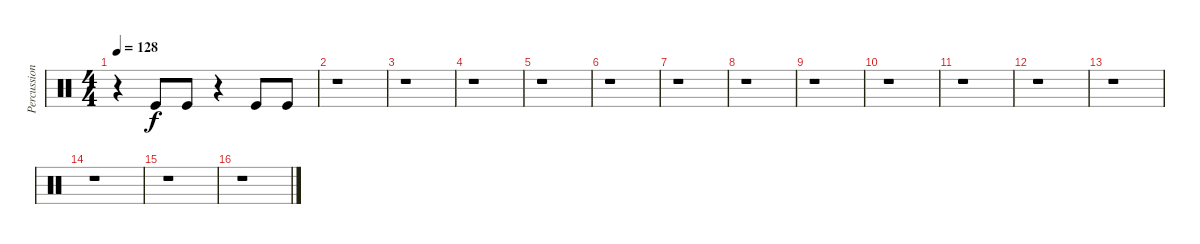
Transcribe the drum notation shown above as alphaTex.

\track ("Percussions" "Percussion") {instrument percussion}
\staff {score}
\articulation defaults
\ts (4 4)
\tempo 128
\clef neutral
\ks c
r.4{dy f} "Kick (hit)".8 "Kick (hit)".8 r.4 "Kick (hit)".8 "Kick (hit)".8 |
r.1 |
r.1 |
r.1 |
r.1 |
r.1 |
r.1 |
r.1 |
r.1 |
r.1 |
r.1 |
r.1 |
r.1 |
r.1 |
r.1 |
r.1
